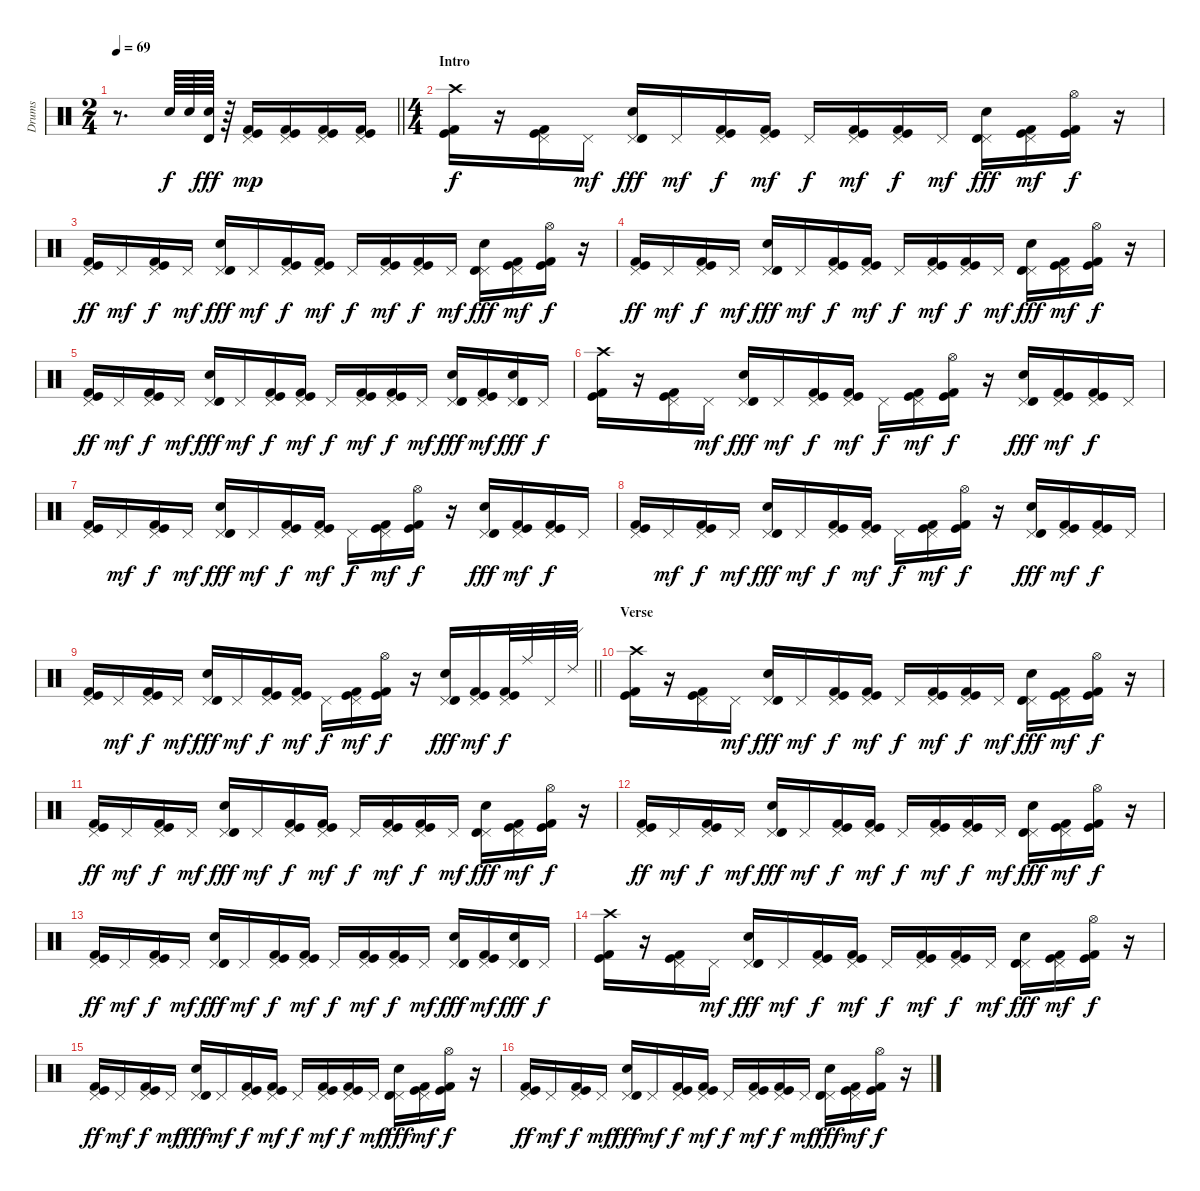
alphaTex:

\track ("Drums" "Drums") {instrument percussion}
\staff {score}
\articulation defaults
\ts (2 4)
\tempo 69
\clef neutral
\barLineRight lightlight
\ks c
r.8{d dy f} "Electric Snare (hit)".64 "Electric Snare (hit)".64 ("Timbale high (hit)" "Electric Snare (hit)").64{dy fff} r.64 ("Pedal Hi-Hat (hit)" "Kick (hit) 2" "Kick (hit)").16{dy mp} ("Pedal Hi-Hat (hit)" "Kick (hit) 2" "Kick (hit)").16 ("Pedal Hi-Hat (hit)" "Kick (hit) 2" "Kick (hit)").16 ("Pedal Hi-Hat (hit)" "Kick (hit) 2" "Kick (hit)").16 |
\ts (4 4)
\section ("" "Intro")
("Crash high (hit)" "Kick (hit) 2" "Kick (hit)").16{dy f} r.16 ("Pedal Hi-Hat (hit)" "Kick (hit) 2" "Kick (hit)").16 "Pedal Hi-Hat (hit)".16{dy mf} ("Pedal Hi-Hat (hit)" "Timbale high (hit)" "Electric Snare (hit)").16{dy fff} "Pedal Hi-Hat (hit)".16{dy mf} ("Pedal Hi-Hat (hit)" "Kick (hit) 2" "Kick (hit)").16{dy f} ("Pedal Hi-Hat (hit)" "Kick (hit) 2" "Kick (hit)").16{dy mf} "Pedal Hi-Hat (hit)".16{dy f} ("Pedal Hi-Hat (hit)" "Kick (hit) 2" "Kick (hit)").16{dy mf} ("Pedal Hi-Hat (hit)" "Kick (hit) 2" "Kick (hit)").16{dy f} "Pedal Hi-Hat (hit)".16{dy mf} ("Pedal Hi-Hat (hit)" "Timbale high (hit)" "Electric Snare (hit)").16{dy fff} ("Pedal Hi-Hat (hit)" "Kick (hit) 2" "Kick (hit)").16{dy mf} ("Hi-Hat (open)" "Kick (hit) 2" "Kick (hit)").16{dy f} r.16 |
("Pedal Hi-Hat (hit)" "Kick (hit) 2" "Kick (hit)").16{dy ff} "Pedal Hi-Hat (hit)".16{dy mf} ("Pedal Hi-Hat (hit)" "Kick (hit) 2" "Kick (hit)").16{dy f} "Pedal Hi-Hat (hit)".16{dy mf} ("Pedal Hi-Hat (hit)" "Timbale high (hit)" "Electric Snare (hit)").16{dy fff} "Pedal Hi-Hat (hit)".16{dy mf} ("Pedal Hi-Hat (hit)" "Kick (hit) 2" "Kick (hit)").16{dy f} ("Pedal Hi-Hat (hit)" "Kick (hit) 2" "Kick (hit)").16{dy mf} "Pedal Hi-Hat (hit)".16{dy f} ("Pedal Hi-Hat (hit)" "Kick (hit) 2" "Kick (hit)").16{dy mf} ("Pedal Hi-Hat (hit)" "Kick (hit) 2" "Kick (hit)").16{dy f} "Pedal Hi-Hat (hit)".16{dy mf} ("Pedal Hi-Hat (hit)" "Timbale high (hit)" "Electric Snare (hit)").16{dy fff} ("Pedal Hi-Hat (hit)" "Kick (hit) 2" "Kick (hit)").16{dy mf} ("Hi-Hat (open)" "Kick (hit) 2" "Kick (hit)").16{dy f} r.16 |
("Pedal Hi-Hat (hit)" "Kick (hit) 2" "Kick (hit)").16{dy ff} "Pedal Hi-Hat (hit)".16{dy mf} ("Pedal Hi-Hat (hit)" "Kick (hit) 2" "Kick (hit)").16{dy f} "Pedal Hi-Hat (hit)".16{dy mf} ("Pedal Hi-Hat (hit)" "Timbale high (hit)" "Electric Snare (hit)").16{dy fff} "Pedal Hi-Hat (hit)".16{dy mf} ("Pedal Hi-Hat (hit)" "Kick (hit) 2" "Kick (hit)").16{dy f} ("Pedal Hi-Hat (hit)" "Kick (hit) 2" "Kick (hit)").16{dy mf} "Pedal Hi-Hat (hit)".16{dy f} ("Pedal Hi-Hat (hit)" "Kick (hit) 2" "Kick (hit)").16{dy mf} ("Pedal Hi-Hat (hit)" "Kick (hit) 2" "Kick (hit)").16{dy f} "Pedal Hi-Hat (hit)".16{dy mf} ("Pedal Hi-Hat (hit)" "Timbale high (hit)" "Electric Snare (hit)").16{dy fff} ("Pedal Hi-Hat (hit)" "Kick (hit) 2" "Kick (hit)").16{dy mf} ("Hi-Hat (open)" "Kick (hit) 2" "Kick (hit)").16{dy f} r.16 |
("Pedal Hi-Hat (hit)" "Kick (hit) 2" "Kick (hit)").16{dy ff} "Pedal Hi-Hat (hit)".16{dy mf} ("Pedal Hi-Hat (hit)" "Kick (hit) 2" "Kick (hit)").16{dy f} "Pedal Hi-Hat (hit)".16{dy mf} ("Pedal Hi-Hat (hit)" "Timbale high (hit)" "Electric Snare (hit)").16{dy fff} "Pedal Hi-Hat (hit)".16{dy mf} ("Pedal Hi-Hat (hit)" "Kick (hit) 2" "Kick (hit)").16{dy f} ("Pedal Hi-Hat (hit)" "Kick (hit) 2" "Kick (hit)").16{dy mf} "Pedal Hi-Hat (hit)".16{dy f} ("Pedal Hi-Hat (hit)" "Kick (hit) 2" "Kick (hit)").16{dy mf} ("Pedal Hi-Hat (hit)" "Kick (hit) 2" "Kick (hit)").16{dy f} "Pedal Hi-Hat (hit)".16{dy mf} ("Pedal Hi-Hat (hit)" "Timbale high (hit)" "Electric Snare (hit)").16{dy fff} ("Pedal Hi-Hat (hit)" "Kick (hit) 2" "Kick (hit)").16{dy mf} ("Pedal Hi-Hat (hit)" "Timbale high (hit)" "Electric Snare (hit)").16{dy fff} "Pedal Hi-Hat (hit)".16{dy f} |
("Crash high (hit)" "Kick (hit) 2" "Kick (hit)").16 r.16 ("Pedal Hi-Hat (hit)" "Kick (hit) 2" "Kick (hit)").16 "Pedal Hi-Hat (hit)".16{dy mf} ("Pedal Hi-Hat (hit)" "Timbale high (hit)" "Electric Snare (hit)").16{dy fff} "Pedal Hi-Hat (hit)".16{dy mf} ("Pedal Hi-Hat (hit)" "Kick (hit) 2" "Kick (hit)").16{dy f} ("Pedal Hi-Hat (hit)" "Kick (hit) 2" "Kick (hit)").16{dy mf} "Pedal Hi-Hat (hit)".16{dy f} ("Pedal Hi-Hat (hit)" "Kick (hit) 2" "Kick (hit)").16{dy mf} ("Hi-Hat (open)" "Kick (hit) 2" "Kick (hit)").16{dy f} r.16 ("Pedal Hi-Hat (hit)" "Timbale high (hit)" "Electric Snare (hit)").16{dy fff} ("Pedal Hi-Hat (hit)" "Kick (hit) 2" "Kick (hit)").16{dy mf} ("Pedal Hi-Hat (hit)" "Kick (hit) 2" "Kick (hit)").16{dy f} "Pedal Hi-Hat (hit)".16 |
("Pedal Hi-Hat (hit)" "Kick (hit) 2" "Kick (hit)").16 "Pedal Hi-Hat (hit)".16{dy mf} ("Pedal Hi-Hat (hit)" "Kick (hit) 2" "Kick (hit)").16{dy f} "Pedal Hi-Hat (hit)".16{dy mf} ("Pedal Hi-Hat (hit)" "Timbale high (hit)" "Electric Snare (hit)").16{dy fff} "Pedal Hi-Hat (hit)".16{dy mf} ("Pedal Hi-Hat (hit)" "Kick (hit) 2" "Kick (hit)").16{dy f} ("Pedal Hi-Hat (hit)" "Kick (hit) 2" "Kick (hit)").16{dy mf} "Pedal Hi-Hat (hit)".16{dy f} ("Pedal Hi-Hat (hit)" "Kick (hit) 2" "Kick (hit)").16{dy mf} ("Hi-Hat (open)" "Kick (hit) 2" "Kick (hit)").16{dy f} r.16 ("Pedal Hi-Hat (hit)" "Timbale high (hit)" "Electric Snare (hit)").16{dy fff} ("Pedal Hi-Hat (hit)" "Kick (hit) 2" "Kick (hit)").16{dy mf} ("Pedal Hi-Hat (hit)" "Kick (hit) 2" "Kick (hit)").16{dy f} "Pedal Hi-Hat (hit)".16 |
("Pedal Hi-Hat (hit)" "Kick (hit) 2" "Kick (hit)").16 "Pedal Hi-Hat (hit)".16{dy mf} ("Pedal Hi-Hat (hit)" "Kick (hit) 2" "Kick (hit)").16{dy f} "Pedal Hi-Hat (hit)".16{dy mf} ("Pedal Hi-Hat (hit)" "Timbale high (hit)" "Electric Snare (hit)").16{dy fff} "Pedal Hi-Hat (hit)".16{dy mf} ("Pedal Hi-Hat (hit)" "Kick (hit) 2" "Kick (hit)").16{dy f} ("Pedal Hi-Hat (hit)" "Kick (hit) 2" "Kick (hit)").16{dy mf} "Pedal Hi-Hat (hit)".16{dy f} ("Pedal Hi-Hat (hit)" "Kick (hit) 2" "Kick (hit)").16{dy mf} ("Hi-Hat (open)" "Kick (hit) 2" "Kick (hit)").16{dy f} r.16 ("Pedal Hi-Hat (hit)" "Timbale high (hit)" "Electric Snare (hit)").16{dy fff} ("Pedal Hi-Hat (hit)" "Kick (hit) 2" "Kick (hit)").16{dy mf} ("Pedal Hi-Hat (hit)" "Kick (hit) 2" "Kick (hit)").16{dy f} "Pedal Hi-Hat (hit)".16 |
\barLineRight lightlight
("Pedal Hi-Hat (hit)" "Kick (hit) 2" "Kick (hit)").16 "Pedal Hi-Hat (hit)".16{dy mf} ("Pedal Hi-Hat (hit)" "Kick (hit) 2" "Kick (hit)").16{dy f} "Pedal Hi-Hat (hit)".16{dy mf} ("Pedal Hi-Hat (hit)" "Timbale high (hit)" "Electric Snare (hit)").16{dy fff} "Pedal Hi-Hat (hit)".16{dy mf} ("Pedal Hi-Hat (hit)" "Kick (hit) 2" "Kick (hit)").16{dy f} ("Pedal Hi-Hat (hit)" "Kick (hit) 2" "Kick (hit)").16{dy mf} "Pedal Hi-Hat (hit)".16{dy f} ("Pedal Hi-Hat (hit)" "Kick (hit) 2" "Kick (hit)").16{dy mf} ("Hi-Hat (open)" "Kick (hit) 2" "Kick (hit)").16{dy f} r.16 ("Pedal Hi-Hat (hit)" "Timbale high (hit)" "Electric Snare (hit)").16{dy fff} ("Pedal Hi-Hat (hit)" "Kick (hit) 2" "Kick (hit)").16{dy mf} ("Pedal Hi-Hat (hit)" "Kick (hit) 2" "Kick (hit)").32{dy f} "Ride (middle)".32 "Pedal Hi-Hat (hit)".32 "Ride (edge) 2".32 |
\section ("" "Verse")
("Crash high (hit)" "Kick (hit) 2" "Kick (hit)").16 r.16 ("Pedal Hi-Hat (hit)" "Kick (hit) 2" "Kick (hit)").16 "Pedal Hi-Hat (hit)".16{dy mf} ("Pedal Hi-Hat (hit)" "Timbale high (hit)" "Electric Snare (hit)").16{dy fff} "Pedal Hi-Hat (hit)".16{dy mf} ("Pedal Hi-Hat (hit)" "Kick (hit) 2" "Kick (hit)").16{dy f} ("Pedal Hi-Hat (hit)" "Kick (hit) 2" "Kick (hit)").16{dy mf} "Pedal Hi-Hat (hit)".16{dy f} ("Pedal Hi-Hat (hit)" "Kick (hit) 2" "Kick (hit)").16{dy mf} ("Pedal Hi-Hat (hit)" "Kick (hit) 2" "Kick (hit)").16{dy f} "Pedal Hi-Hat (hit)".16{dy mf} ("Pedal Hi-Hat (hit)" "Timbale high (hit)" "Electric Snare (hit)").16{dy fff} ("Pedal Hi-Hat (hit)" "Kick (hit) 2" "Kick (hit)").16{dy mf} ("Hi-Hat (open)" "Kick (hit) 2" "Kick (hit)").16{dy f} r.16 |
("Pedal Hi-Hat (hit)" "Kick (hit) 2" "Kick (hit)").16{dy ff} "Pedal Hi-Hat (hit)".16{dy mf} ("Pedal Hi-Hat (hit)" "Kick (hit) 2" "Kick (hit)").16{dy f} "Pedal Hi-Hat (hit)".16{dy mf} ("Pedal Hi-Hat (hit)" "Timbale high (hit)" "Electric Snare (hit)").16{dy fff} "Pedal Hi-Hat (hit)".16{dy mf} ("Pedal Hi-Hat (hit)" "Kick (hit) 2" "Kick (hit)").16{dy f} ("Pedal Hi-Hat (hit)" "Kick (hit) 2" "Kick (hit)").16{dy mf} "Pedal Hi-Hat (hit)".16{dy f} ("Pedal Hi-Hat (hit)" "Kick (hit) 2" "Kick (hit)").16{dy mf} ("Pedal Hi-Hat (hit)" "Kick (hit) 2" "Kick (hit)").16{dy f} "Pedal Hi-Hat (hit)".16{dy mf} ("Pedal Hi-Hat (hit)" "Timbale high (hit)" "Electric Snare (hit)").16{dy fff} ("Pedal Hi-Hat (hit)" "Kick (hit) 2" "Kick (hit)").16{dy mf} ("Hi-Hat (open)" "Kick (hit) 2" "Kick (hit)").16{dy f} r.16 |
("Pedal Hi-Hat (hit)" "Kick (hit) 2" "Kick (hit)").16{dy ff} "Pedal Hi-Hat (hit)".16{dy mf} ("Pedal Hi-Hat (hit)" "Kick (hit) 2" "Kick (hit)").16{dy f} "Pedal Hi-Hat (hit)".16{dy mf} ("Pedal Hi-Hat (hit)" "Timbale high (hit)" "Electric Snare (hit)").16{dy fff} "Pedal Hi-Hat (hit)".16{dy mf} ("Pedal Hi-Hat (hit)" "Kick (hit) 2" "Kick (hit)").16{dy f} ("Pedal Hi-Hat (hit)" "Kick (hit) 2" "Kick (hit)").16{dy mf} "Pedal Hi-Hat (hit)".16{dy f} ("Pedal Hi-Hat (hit)" "Kick (hit) 2" "Kick (hit)").16{dy mf} ("Pedal Hi-Hat (hit)" "Kick (hit) 2" "Kick (hit)").16{dy f} "Pedal Hi-Hat (hit)".16{dy mf} ("Pedal Hi-Hat (hit)" "Timbale high (hit)" "Electric Snare (hit)").16{dy fff} ("Pedal Hi-Hat (hit)" "Kick (hit) 2" "Kick (hit)").16{dy mf} ("Hi-Hat (open)" "Kick (hit) 2" "Kick (hit)").16{dy f} r.16 |
("Pedal Hi-Hat (hit)" "Kick (hit) 2" "Kick (hit)").16{dy ff} "Pedal Hi-Hat (hit)".16{dy mf} ("Pedal Hi-Hat (hit)" "Kick (hit) 2" "Kick (hit)").16{dy f} "Pedal Hi-Hat (hit)".16{dy mf} ("Pedal Hi-Hat (hit)" "Timbale high (hit)" "Electric Snare (hit)").16{dy fff} "Pedal Hi-Hat (hit)".16{dy mf} ("Pedal Hi-Hat (hit)" "Kick (hit) 2" "Kick (hit)").16{dy f} ("Pedal Hi-Hat (hit)" "Kick (hit) 2" "Kick (hit)").16{dy mf} "Pedal Hi-Hat (hit)".16{dy f} ("Pedal Hi-Hat (hit)" "Kick (hit) 2" "Kick (hit)").16{dy mf} ("Pedal Hi-Hat (hit)" "Kick (hit) 2" "Kick (hit)").16{dy f} "Pedal Hi-Hat (hit)".16{dy mf} ("Pedal Hi-Hat (hit)" "Timbale high (hit)" "Electric Snare (hit)").16{dy fff} ("Pedal Hi-Hat (hit)" "Kick (hit) 2" "Kick (hit)").16{dy mf} ("Pedal Hi-Hat (hit)" "Timbale high (hit)" "Electric Snare (hit)").16{dy fff} "Pedal Hi-Hat (hit)".16{dy f} |
("Crash high (hit)" "Kick (hit) 2" "Kick (hit)").16 r.16 ("Pedal Hi-Hat (hit)" "Kick (hit) 2" "Kick (hit)").16 "Pedal Hi-Hat (hit)".16{dy mf} ("Pedal Hi-Hat (hit)" "Timbale high (hit)" "Electric Snare (hit)").16{dy fff} "Pedal Hi-Hat (hit)".16{dy mf} ("Pedal Hi-Hat (hit)" "Kick (hit) 2" "Kick (hit)").16{dy f} ("Pedal Hi-Hat (hit)" "Kick (hit) 2" "Kick (hit)").16{dy mf} "Pedal Hi-Hat (hit)".16{dy f} ("Pedal Hi-Hat (hit)" "Kick (hit) 2" "Kick (hit)").16{dy mf} ("Pedal Hi-Hat (hit)" "Kick (hit) 2" "Kick (hit)").16{dy f} "Pedal Hi-Hat (hit)".16{dy mf} ("Pedal Hi-Hat (hit)" "Timbale high (hit)" "Electric Snare (hit)").16{dy fff} ("Pedal Hi-Hat (hit)" "Kick (hit) 2" "Kick (hit)").16{dy mf} ("Hi-Hat (open)" "Kick (hit) 2" "Kick (hit)").16{dy f} r.16 |
("Pedal Hi-Hat (hit)" "Kick (hit) 2" "Kick (hit)").16{dy ff} "Pedal Hi-Hat (hit)".16{dy mf} ("Pedal Hi-Hat (hit)" "Kick (hit) 2" "Kick (hit)").16{dy f} "Pedal Hi-Hat (hit)".16{dy mf} ("Pedal Hi-Hat (hit)" "Timbale high (hit)" "Electric Snare (hit)").16{dy fff} "Pedal Hi-Hat (hit)".16{dy mf} ("Pedal Hi-Hat (hit)" "Kick (hit) 2" "Kick (hit)").16{dy f} ("Pedal Hi-Hat (hit)" "Kick (hit) 2" "Kick (hit)").16{dy mf} "Pedal Hi-Hat (hit)".16{dy f} ("Pedal Hi-Hat (hit)" "Kick (hit) 2" "Kick (hit)").16{dy mf} ("Pedal Hi-Hat (hit)" "Kick (hit) 2" "Kick (hit)").16{dy f} "Pedal Hi-Hat (hit)".16{dy mf} ("Pedal Hi-Hat (hit)" "Timbale high (hit)" "Electric Snare (hit)").16{dy fff} ("Pedal Hi-Hat (hit)" "Kick (hit) 2" "Kick (hit)").16{dy mf} ("Hi-Hat (open)" "Kick (hit) 2" "Kick (hit)").16{dy f} r.16 |
("Pedal Hi-Hat (hit)" "Kick (hit) 2" "Kick (hit)").16{dy ff} "Pedal Hi-Hat (hit)".16{dy mf} ("Pedal Hi-Hat (hit)" "Kick (hit) 2" "Kick (hit)").16{dy f} "Pedal Hi-Hat (hit)".16{dy mf} ("Pedal Hi-Hat (hit)" "Timbale high (hit)" "Electric Snare (hit)").16{dy fff} "Pedal Hi-Hat (hit)".16{dy mf} ("Pedal Hi-Hat (hit)" "Kick (hit) 2" "Kick (hit)").16{dy f} ("Pedal Hi-Hat (hit)" "Kick (hit) 2" "Kick (hit)").16{dy mf} "Pedal Hi-Hat (hit)".16{dy f} ("Pedal Hi-Hat (hit)" "Kick (hit) 2" "Kick (hit)").16{dy mf} ("Pedal Hi-Hat (hit)" "Kick (hit) 2" "Kick (hit)").16{dy f} "Pedal Hi-Hat (hit)".16{dy mf} ("Pedal Hi-Hat (hit)" "Timbale high (hit)" "Electric Snare (hit)").16{dy fff} ("Pedal Hi-Hat (hit)" "Kick (hit) 2" "Kick (hit)").16{dy mf} ("Hi-Hat (open)" "Kick (hit) 2" "Kick (hit)").16{dy f} r.16
